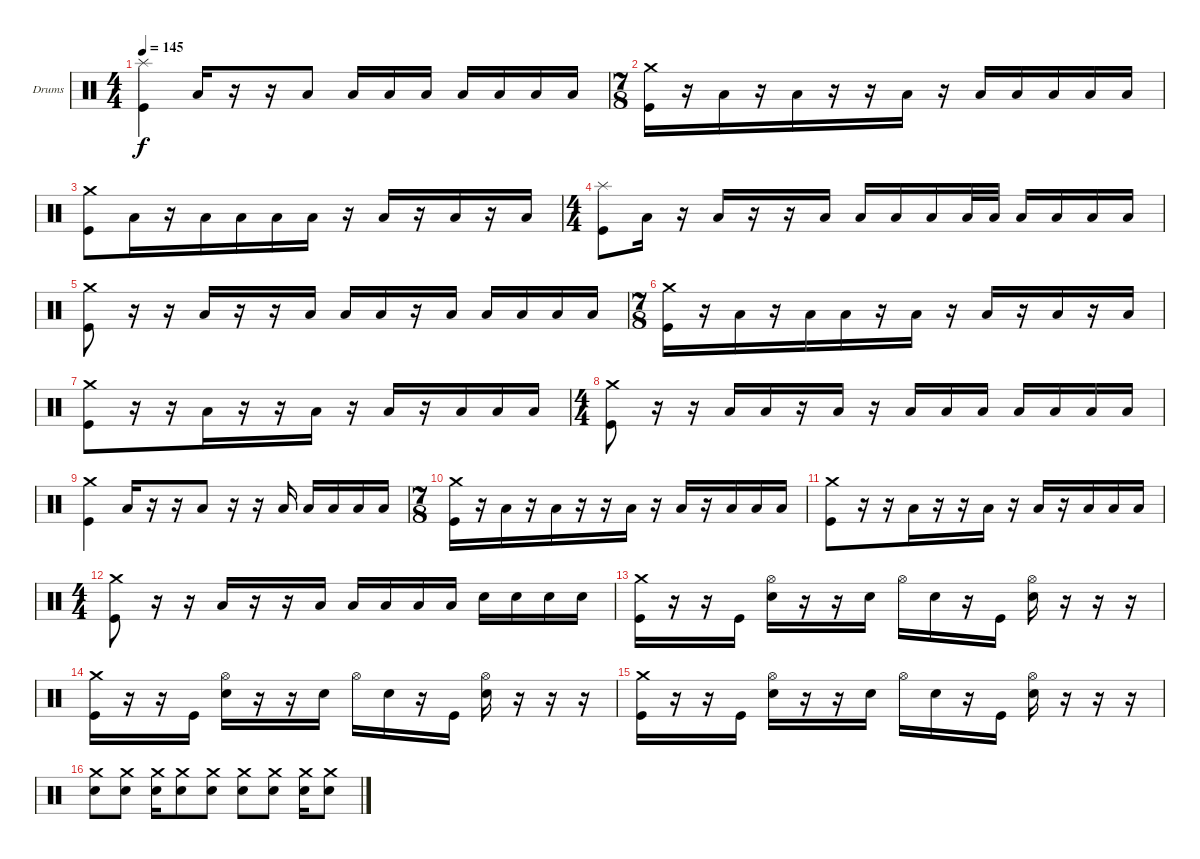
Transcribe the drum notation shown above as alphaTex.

\defaultSystemsLayout 4
\bracketExtendMode groupsimilarinstruments
\firstSystemTrackNameOrientation horizontal
\otherSystemsTrackNameOrientation horizontal
\track ("Drumkit" "Drums") {instrument percussion}
\staff {score}
\articulation defaults
\ts (4 4)
\tempo 145
\clef neutral
\ks c
("Splash (hit)" "Kick (hit)").4{dy f} "Low Tom (hit)".16 r.16 r.16 "Low Tom (hit)".8 "Low Tom (hit)".16 "Low Tom (hit)".16 "Low Tom (hit)".16 "Low Tom (hit)".16 "Low Tom (hit)".16 "Low Tom (hit)".16 "Low Tom (hit)".16 |
\ts (7 8)
("Crash medium (hit)" "Kick (hit)").16 r.16 "Low Tom (hit)".16 r.16 "Low Tom (hit)".16 r.16 r.16 "Low Tom (hit)".16 r.16 "Low Tom (hit)".16 "Low Tom (hit)".16 "Low Tom (hit)".16 "Low Tom (hit)".16 "Low Tom (hit)".16 |
("Crash medium (hit)" "Kick (hit)").8 "Low Tom (hit)".16 r.16 "Low Tom (hit)".16 "Low Tom (hit)".16 "Low Tom (hit)".16 "Low Tom (hit)".16 r.16 "Low Tom (hit)".16 r.16 "Low Tom (hit)".16 r.16 "Low Tom (hit)".16 |
\ts (4 4)
("Splash (hit)" "Kick (hit)").8 "Low Tom (hit)".16 r.16 "Low Tom (hit)".16 r.16 r.16 "Low Tom (hit)".16 "Low Tom (hit)".16 "Low Tom (hit)".16 "Low Tom (hit)".16 "Low Tom (hit)".32 "Low Tom (hit)".32 "Low Tom (hit)".16 "Low Tom (hit)".16 "Low Tom (hit)".16 "Low Tom (hit)".16 |
("Crash medium (hit)" "Kick (hit)").8 r.16 r.16 "Low Tom (hit)".16 r.16 r.16 "Low Tom (hit)".16 "Low Tom (hit)".16 "Low Tom (hit)".16 r.16 "Low Tom (hit)".16 "Low Tom (hit)".16 "Low Tom (hit)".16 "Low Tom (hit)".16 "Low Tom (hit)".16 |
\ts (7 8)
("Crash medium (hit)" "Kick (hit)").16 r.16 "Low Tom (hit)".16 r.16 "Low Tom (hit)".16 "Low Tom (hit)".16 r.16 "Low Tom (hit)".16 r.16 "Low Tom (hit)".16 r.16 "Low Tom (hit)".16 r.16 "Low Tom (hit)".16 |
("Crash medium (hit)" "Kick (hit)").8 r.16 r.16 "Low Tom (hit)".16 r.16 r.16 "Low Tom (hit)".16 r.16 "Low Tom (hit)".16 r.16 "Low Tom (hit)".16 "Low Tom (hit)".16 "Low Tom (hit)".16 |
\ts (4 4)
("Crash medium (hit)" "Kick (hit)").8 r.16 r.16 "Low Tom (hit)".16 "Low Tom (hit)".16 r.16 "Low Tom (hit)".16 r.16 "Low Tom (hit)".16 "Low Tom (hit)".16 "Low Tom (hit)".16 "Low Tom (hit)".16 "Low Tom (hit)".16 "Low Tom (hit)".16 "Low Tom (hit)".16 |
("Crash medium (hit)" "Kick (hit)").4 "Low Tom (hit)".16 r.16 r.16 "Low Tom (hit)".8 r.16 r.16 "Low Tom (hit)".16 "Low Tom (hit)".16 "Low Tom (hit)".16 "Low Tom (hit)".16 "Low Tom (hit)".16 |
\ts (7 8)
("Crash medium (hit)" "Kick (hit)").16 r.16 "Low Tom (hit)".16 r.16 "Low Tom (hit)".16 r.16 r.16 "Low Tom (hit)".16 r.16 "Low Tom (hit)".16 r.16 "Low Tom (hit)".16 "Low Tom (hit)".16 "Low Tom (hit)".16 |
("Crash medium (hit)" "Kick (hit)").8 r.16 r.16 "Low Tom (hit)".16 r.16 r.16 "Low Tom (hit)".16 r.16 "Low Tom (hit)".16 r.16 "Low Tom (hit)".16 "Low Tom (hit)".16 "Low Tom (hit)".16 |
\ts (4 4)
("Crash medium (hit)" "Kick (hit)").8 r.16 r.16 "Low Tom (hit)".16 r.16 r.16 "Low Tom (hit)".16 "Low Tom (hit)".16 "Low Tom (hit)".16 "Low Tom (hit)".16 "Low Tom (hit)".16 "Snare (hit) 2".16 "Snare (hit) 2".16 "Snare (hit) 2".16 "Snare (hit) 2".16 |
("Crash medium (hit)" "Kick (hit)").16 r.16 r.16 "Kick (hit)".16 ("Hi-Hat (open)" "Snare (hit) 2").16 r.16 r.16 "Snare (hit) 2".16 "Hi-Hat (open)".16 "Snare (hit) 2".16 r.16 "Kick (hit)".16 ("Hi-Hat (open)" "Snare (hit) 2").16 r.16 r.16 r.16 |
("Crash medium (hit)" "Kick (hit)").16 r.16 r.16 "Kick (hit)".16 ("Hi-Hat (open)" "Snare (hit) 2").16 r.16 r.16 "Snare (hit) 2".16 "Hi-Hat (open)".16 "Snare (hit) 2".16 r.16 "Kick (hit)".16 ("Hi-Hat (open)" "Snare (hit) 2").16 r.16 r.16 r.16 |
("Crash medium (hit)" "Kick (hit)").16 r.16 r.16 "Kick (hit)".16 ("Hi-Hat (open)" "Snare (hit) 2").16 r.16 r.16 "Snare (hit) 2".16 "Hi-Hat (open)".16 "Snare (hit) 2".16 r.16 "Kick (hit)".16 ("Hi-Hat (open)" "Snare (hit) 2").16 r.16 r.16 r.16 |
("Crash medium (hit)" "Snare (hit) 2").8 ("Crash medium (hit)" "Snare (hit) 2").8 ("Crash medium (hit)" "Snare (hit) 2").16 ("Crash medium (hit)" "Snare (hit) 2").8 ("Crash medium (hit)" "Snare (hit) 2").8 ("Crash medium (hit)" "Snare (hit) 2").8 ("Crash medium (hit)" "Snare (hit) 2").8 ("Crash medium (hit)" "Snare (hit) 2").16 ("Crash medium (hit)" "Snare (hit) 2").8
